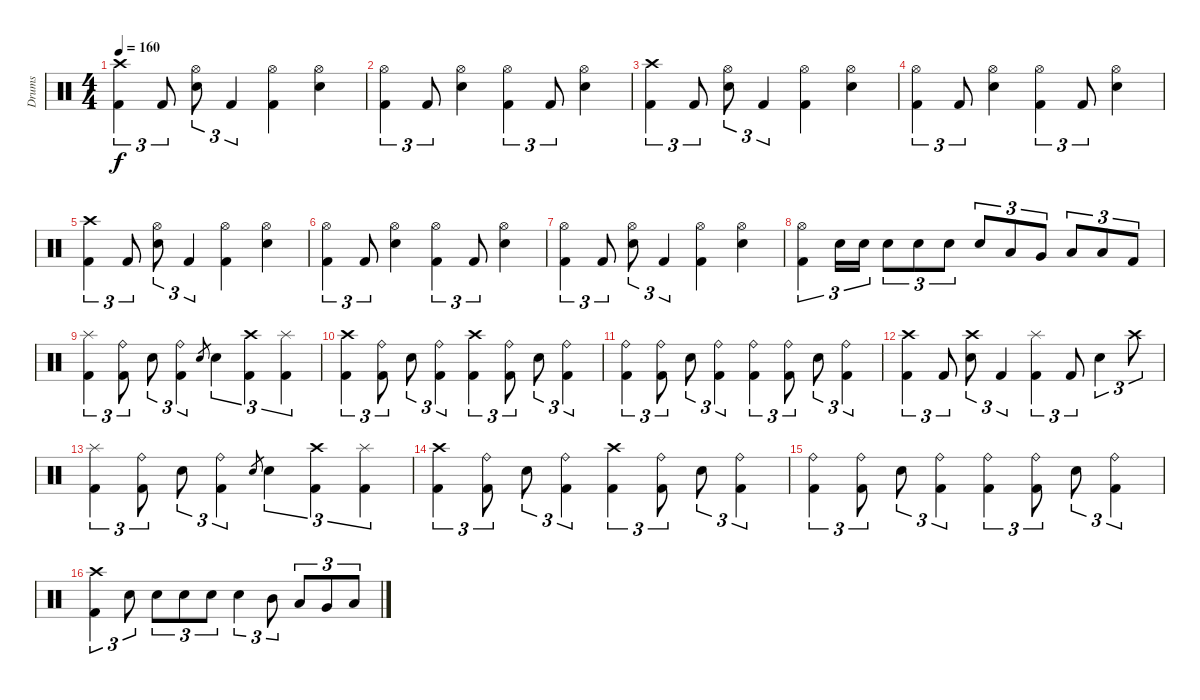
\track ("Drums" "Drums") {instrument percussion}
\staff {score}
\articulation defaults
\ts (4 4)
\tempo 160
\clef neutral
\ks c
("Crash high (hit)" "Kick (hit) 2").4{tu (3 2) dy f} "Kick (hit) 2".8{tu (3 2)} ("Hi-Hat (open)" "Snare (hit) 2").8{tu (3 2)} "Kick (hit) 2".4{tu (3 2)} ("Hi-Hat (open)" "Kick (hit) 2").4 ("Hi-Hat (open)" "Snare (hit) 2").4 |
("Hi-Hat (open)" "Kick (hit) 2").4{tu (3 2)} "Kick (hit) 2".8{tu (3 2)} ("Hi-Hat (open)" "Snare (hit) 2").4 ("Hi-Hat (open)" "Kick (hit) 2").4{tu (3 2)} "Kick (hit) 2".8{tu (3 2)} ("Hi-Hat (open)" "Snare (hit) 2").4 |
("Crash high (hit)" "Kick (hit) 2").4{tu (3 2)} "Kick (hit) 2".8{tu (3 2)} ("Hi-Hat (open)" "Snare (hit) 2").8{tu (3 2)} "Kick (hit) 2".4{tu (3 2)} ("Hi-Hat (open)" "Kick (hit) 2").4 ("Hi-Hat (open)" "Snare (hit) 2").4 |
("Hi-Hat (open)" "Kick (hit) 2").4{tu (3 2)} "Kick (hit) 2".8{tu (3 2)} ("Hi-Hat (open)" "Snare (hit) 2").4 ("Hi-Hat (open)" "Kick (hit) 2").4{tu (3 2)} "Kick (hit) 2".8{tu (3 2)} ("Hi-Hat (open)" "Snare (hit) 2").4 |
("Crash high (hit)" "Kick (hit) 2").4{tu (3 2)} "Kick (hit) 2".8{tu (3 2)} ("Hi-Hat (open)" "Snare (hit) 2").8{tu (3 2)} "Kick (hit) 2".4{tu (3 2)} ("Hi-Hat (open)" "Kick (hit) 2").4 ("Hi-Hat (open)" "Snare (hit) 2").4 |
("Hi-Hat (open)" "Kick (hit) 2").4{tu (3 2)} "Kick (hit) 2".8{tu (3 2)} ("Hi-Hat (open)" "Snare (hit) 2").4 ("Hi-Hat (open)" "Kick (hit) 2").4{tu (3 2)} "Kick (hit) 2".8{tu (3 2)} ("Hi-Hat (open)" "Snare (hit) 2").4 |
("Hi-Hat (open)" "Kick (hit) 2").4{tu (3 2)} "Kick (hit) 2".8{tu (3 2)} ("Hi-Hat (open)" "Snare (hit) 2").8{tu (3 2)} "Kick (hit) 2".4{tu (3 2)} ("Hi-Hat (open)" "Kick (hit) 2").4 ("Hi-Hat (open)" "Snare (hit) 2").4 |
("Hi-Hat (open)" "Kick (hit) 2").4{tu (3 2)} "Snare (hit) 2".16{tu (3 2)} "Snare (hit) 2".16{tu (3 2)} "Snare (hit) 2".8{tu (3 2)} "Snare (hit) 2".8{tu (3 2)} "Snare (hit) 2".8{tu (3 2)} "Snare (hit) 2".8{tu (3 2)} "Low Tom (hit)".8{tu (3 2)} "Very Low Tom (hit)".8{tu (3 2)} "Low Floor Tom (hit)".8{tu (3 2)} "Low Floor Tom (hit)".8{tu (3 2)} "Kick (hit) 2".8{tu (3 2)} |
("Splash (hit)" "Kick (hit) 2").4{tu (3 2)} ("Ride (bell)" "Kick (hit) 2").8{tu (3 2)} "Snare (hit) 2".8{tu (3 2)} ("Ride (bell)" "Kick (hit) 2").4{tu (3 2)} "Snare (hit) 2".8{gr} "Snare (hit) 2".4{tu (3 2)} ("Crash high (hit)" "Kick (hit) 2").4{tu (3 2)} ("Splash (hit)" "Kick (hit) 2").4{tu (3 2)} |
("Crash high (hit)" "Kick (hit) 2").4{tu (3 2)} ("Ride (bell)" "Kick (hit) 2").8{tu (3 2)} "Snare (hit) 2".8{tu (3 2)} ("Ride (bell)" "Kick (hit) 2").4{tu (3 2)} ("Crash high (hit)" "Kick (hit) 2").4{tu (3 2)} ("Ride (bell)" "Kick (hit) 2").8{tu (3 2)} "Snare (hit) 2".8{tu (3 2)} ("Ride (bell)" "Kick (hit) 2").4{tu (3 2)} |
("Ride (bell)" "Kick (hit) 2").4{tu (3 2)} ("Ride (bell)" "Kick (hit) 2").8{tu (3 2)} "Snare (hit) 2".8{tu (3 2)} ("Ride (bell)" "Kick (hit) 2").4{tu (3 2)} ("Ride (bell)" "Kick (hit) 2").4{tu (3 2)} ("Ride (bell)" "Kick (hit) 2").8{tu (3 2)} "Snare (hit) 2".8{tu (3 2)} ("Ride (bell)" "Kick (hit) 2").4{tu (3 2)} |
("Crash high (hit)" "Kick (hit) 2").4{tu (3 2)} "Kick (hit) 2".8{tu (3 2)} ("Crash high (hit)" "Snare (hit) 2").8{tu (3 2)} "Kick (hit) 2".4{tu (3 2)} ("Splash (hit)" "Kick (hit) 2").4{tu (3 2)} "Kick (hit) 2".8{tu (3 2)} "Snare (hit) 2".4{tu (3 2)} "Crash high (hit)".8{tu (3 2)} |
("Splash (hit)" "Kick (hit) 2").4{tu (3 2)} ("Ride (bell)" "Kick (hit) 2").8{tu (3 2)} "Snare (hit) 2".8{tu (3 2)} ("Ride (bell)" "Kick (hit) 2").4{tu (3 2)} "Snare (hit) 2".8{gr} "Snare (hit) 2".4{tu (3 2)} ("Crash high (hit)" "Kick (hit) 2").4{tu (3 2)} ("Splash (hit)" "Kick (hit) 2").4{tu (3 2)} |
("Crash high (hit)" "Kick (hit) 2").4{tu (3 2)} ("Ride (bell)" "Kick (hit) 2").8{tu (3 2)} "Snare (hit) 2".8{tu (3 2)} ("Ride (bell)" "Kick (hit) 2").4{tu (3 2)} ("Crash high (hit)" "Kick (hit) 2").4{tu (3 2)} ("Ride (bell)" "Kick (hit) 2").8{tu (3 2)} "Snare (hit) 2".8{tu (3 2)} ("Ride (bell)" "Kick (hit) 2").4{tu (3 2)} |
("Ride (bell)" "Kick (hit) 2").4{tu (3 2)} ("Ride (bell)" "Kick (hit) 2").8{tu (3 2)} "Snare (hit) 2".8{tu (3 2)} ("Ride (bell)" "Kick (hit) 2").4{tu (3 2)} ("Ride (bell)" "Kick (hit) 2").4{tu (3 2)} ("Ride (bell)" "Kick (hit) 2").8{tu (3 2)} "Snare (hit) 2".8{tu (3 2)} ("Ride (bell)" "Kick (hit) 2").4{tu (3 2)} |
("Crash high (hit)" "Kick (hit) 2").4{tu (3 2)} "Snare (hit) 2".8{tu (3 2)} "Snare (hit) 2".8{tu (3 2)} "Snare (hit) 2".8{tu (3 2)} "Snare (hit) 2".8{tu (3 2)} "Snare (hit) 2".4{tu (3 2)} "Mid Tom (hit)".8{tu (3 2)} "Low Tom (hit)".8{tu (3 2)} "Very Low Tom (hit)".8{tu (3 2)} "Low Floor Tom (hit)".8{tu (3 2)}
